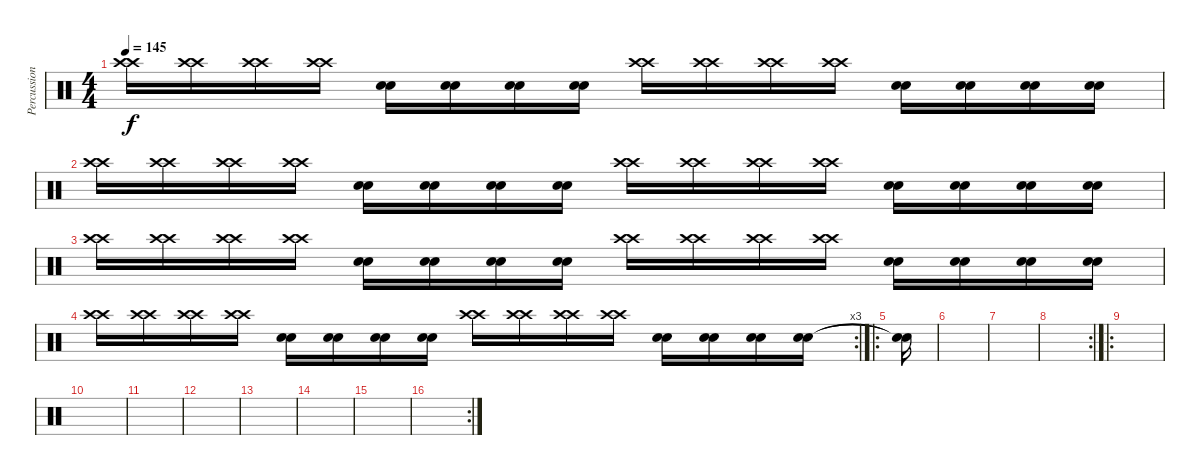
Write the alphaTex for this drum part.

\track ("Percussions" "Percussion") {instrument percussion}
\staff {score}
\articulation defaults
\ts (4 4)
\tempo 145
\clef neutral
\ks c
("Crash high (hit)" "Crash high (hit)").16{dy f} ("Crash high (hit)" "Crash high (hit)").16 ("Crash high (hit)" "Crash high (hit)").16 ("Crash high (hit)" "Crash high (hit)").16 ("Snare (hit) 2" "Snare (hit) 2").16 ("Snare (hit) 2" "Snare (hit) 2").16 ("Snare (hit) 2" "Snare (hit) 2").16 ("Snare (hit) 2" "Snare (hit) 2").16 ("Crash high (hit)" "Crash high (hit)").16 ("Crash high (hit)" "Crash high (hit)").16 ("Crash high (hit)" "Crash high (hit)").16 ("Crash high (hit)" "Crash high (hit)").16 ("Snare (hit) 2" "Snare (hit) 2").16 ("Snare (hit) 2" "Snare (hit) 2").16 ("Snare (hit) 2" "Snare (hit) 2").16 ("Snare (hit) 2" "Snare (hit) 2").16 |
("Crash high (hit)" "Crash high (hit)").16 ("Crash high (hit)" "Crash high (hit)").16 ("Crash high (hit)" "Crash high (hit)").16 ("Crash high (hit)" "Crash high (hit)").16 ("Snare (hit) 2" "Snare (hit) 2").16 ("Snare (hit) 2" "Snare (hit) 2").16 ("Snare (hit) 2" "Snare (hit) 2").16 ("Snare (hit) 2" "Snare (hit) 2").16 ("Crash high (hit)" "Crash high (hit)").16 ("Crash high (hit)" "Crash high (hit)").16 ("Crash high (hit)" "Crash high (hit)").16 ("Crash high (hit)" "Crash high (hit)").16 ("Snare (hit) 2" "Snare (hit) 2").16 ("Snare (hit) 2" "Snare (hit) 2").16 ("Snare (hit) 2" "Snare (hit) 2").16 ("Snare (hit) 2" "Snare (hit) 2").16 |
("Crash high (hit)" "Crash high (hit)").16 ("Crash high (hit)" "Crash high (hit)").16 ("Crash high (hit)" "Crash high (hit)").16 ("Crash high (hit)" "Crash high (hit)").16 ("Snare (hit) 2" "Snare (hit) 2").16 ("Snare (hit) 2" "Snare (hit) 2").16 ("Snare (hit) 2" "Snare (hit) 2").16 ("Snare (hit) 2" "Snare (hit) 2").16 ("Crash high (hit)" "Crash high (hit)").16 ("Crash high (hit)" "Crash high (hit)").16 ("Crash high (hit)" "Crash high (hit)").16 ("Crash high (hit)" "Crash high (hit)").16 ("Snare (hit) 2" "Snare (hit) 2").16 ("Snare (hit) 2" "Snare (hit) 2").16 ("Snare (hit) 2" "Snare (hit) 2").16 ("Snare (hit) 2" "Snare (hit) 2").16 |
\rc 3
("Crash high (hit)" "Crash high (hit)").16 ("Crash high (hit)" "Crash high (hit)").16 ("Crash high (hit)" "Crash high (hit)").16 ("Crash high (hit)" "Crash high (hit)").16 ("Snare (hit) 2" "Snare (hit) 2").16 ("Snare (hit) 2" "Snare (hit) 2").16 ("Snare (hit) 2" "Snare (hit) 2").16 ("Snare (hit) 2" "Snare (hit) 2").16 ("Crash high (hit)" "Crash high (hit)").16 ("Crash high (hit)" "Crash high (hit)").16 ("Crash high (hit)" "Crash high (hit)").16 ("Crash high (hit)" "Crash high (hit)").16 ("Snare (hit) 2" "Snare (hit) 2").16 ("Snare (hit) 2" "Snare (hit) 2").16 ("Snare (hit) 2" "Snare (hit) 2").16 ("Snare (hit) 2" "Snare (hit) 2").16 |
\ro
("Snare (hit)"{t} "Snare (hit)"{t}).16 |
|
|
\rc 2
|
\ro
|
|
|
|
|
|
|
\rc 2
